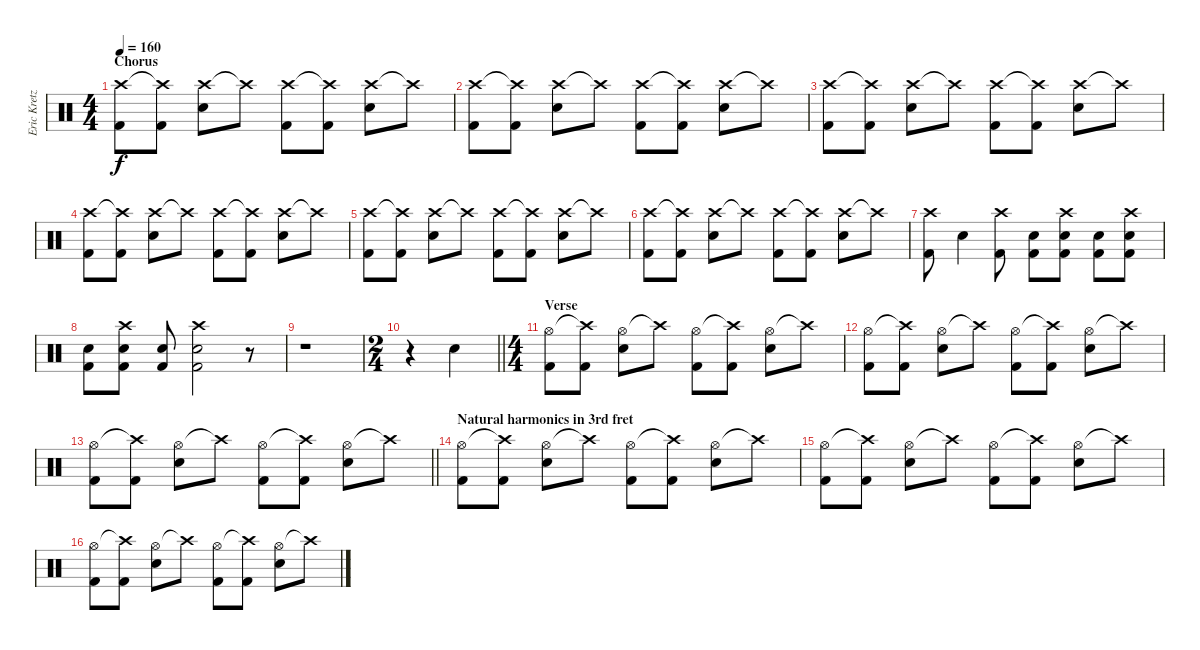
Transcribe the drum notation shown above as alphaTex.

\track ("Eric Kretz (Drums)" "Eric Kretz") {instrument percussion}
\staff {score}
\articulation defaults
\ts (4 4)
\section ("" "Chorus")
\tempo 160
\clef neutral
\ks c
("Crash high (hit)" "Kick (hit) 2").8{dy f} ("Crash high (hit)"{t} "Kick (hit) 2").8 ("Crash high (hit)" "Snare (hit) 2").8 "Crash high (hit)"{t}.8 ("Crash high (hit)" "Kick (hit) 2").8 ("Crash high (hit)"{t} "Kick (hit) 2").8 ("Crash high (hit)" "Snare (hit) 2").8 "Crash high (hit)"{t}.8 |
("Crash high (hit)" "Kick (hit) 2").8 ("Crash high (hit)"{t} "Kick (hit) 2").8 ("Crash high (hit)" "Snare (hit) 2").8 "Crash high (hit)"{t}.8 ("Crash high (hit)" "Kick (hit) 2").8 ("Crash high (hit)"{t} "Kick (hit) 2").8 ("Crash high (hit)" "Snare (hit) 2").8 "Crash high (hit)"{t}.8 |
("Crash high (hit)" "Kick (hit) 2").8 ("Crash high (hit)"{t} "Kick (hit) 2").8 ("Crash high (hit)" "Snare (hit) 2").8 "Crash high (hit)"{t}.8 ("Crash high (hit)" "Kick (hit) 2").8 ("Crash high (hit)"{t} "Kick (hit) 2").8 ("Crash high (hit)" "Snare (hit) 2").8 "Crash high (hit)"{t}.8 |
("Crash high (hit)" "Kick (hit) 2").8 ("Crash high (hit)"{t} "Kick (hit) 2").8 ("Crash high (hit)" "Snare (hit) 2").8 "Crash high (hit)"{t}.8 ("Crash high (hit)" "Kick (hit) 2").8 ("Crash high (hit)"{t} "Kick (hit) 2").8 ("Crash high (hit)" "Snare (hit) 2").8 "Crash high (hit)"{t}.8 |
("Crash high (hit)" "Kick (hit) 2").8 ("Crash high (hit)"{t} "Kick (hit) 2").8 ("Crash high (hit)" "Snare (hit) 2").8 "Crash high (hit)"{t}.8 ("Crash high (hit)" "Kick (hit) 2").8 ("Crash high (hit)"{t} "Kick (hit) 2").8 ("Crash high (hit)" "Snare (hit) 2").8 "Crash high (hit)"{t}.8 |
("Crash high (hit)" "Kick (hit) 2").8 ("Crash high (hit)"{t} "Kick (hit) 2").8 ("Crash high (hit)" "Snare (hit) 2").8 "Crash high (hit)"{t}.8 ("Crash high (hit)" "Kick (hit) 2").8 ("Crash high (hit)"{t} "Kick (hit) 2").8 ("Crash high (hit)" "Snare (hit) 2").8 "Crash high (hit)"{t}.8 |
("Crash high (hit)" "Kick (hit) 2").8 "Snare (hit) 2".4 ("Crash high (hit)" "Kick (hit) 2").8 ("Snare (hit) 2" "Kick (hit) 2").8 ("Crash high (hit)" "Snare (hit) 2" "Kick (hit) 2").8 ("Snare (hit) 2" "Kick (hit) 2").8 ("Crash high (hit)" "Snare (hit) 2" "Kick (hit) 2").8 |
("Snare (hit) 2" "Kick (hit) 2").8 ("Crash high (hit)" "Snare (hit) 2" "Kick (hit) 2").8 ("Snare (hit) 2" "Kick (hit) 2").8 ("Crash high (hit)" "Snare (hit) 2" "Kick (hit) 2").2 r.8 |
r.1 |
\ts (2 4)
\barLineRight lightlight
r.4 "Snare (hit) 2".4 |
\ts (4 4)
\section ("" "Verse")
("Hi-Hat (open)" "Kick (hit) 2").8 ("Crash high (hit)"{t} "Kick (hit) 2").8 ("Hi-Hat (open)" "Snare (hit) 2").8 "Crash high (hit)"{t}.8 ("Hi-Hat (open)" "Kick (hit) 2").8 ("Crash high (hit)"{t} "Kick (hit) 2").8 ("Hi-Hat (open)" "Snare (hit) 2").8 "Crash high (hit)"{t}.8 |
("Hi-Hat (open)" "Kick (hit) 2").8 ("Crash high (hit)"{t} "Kick (hit) 2").8 ("Hi-Hat (open)" "Snare (hit) 2").8 "Crash high (hit)"{t}.8 ("Hi-Hat (open)" "Kick (hit) 2").8 ("Crash high (hit)"{t} "Kick (hit) 2").8 ("Hi-Hat (open)" "Snare (hit) 2").8 "Crash high (hit)"{t}.8 |
\barLineRight lightlight
("Hi-Hat (open)" "Kick (hit) 2").8 ("Crash high (hit)"{t} "Kick (hit) 2").8 ("Hi-Hat (open)" "Snare (hit) 2").8 "Crash high (hit)"{t}.8 ("Hi-Hat (open)" "Kick (hit) 2").8 ("Crash high (hit)"{t} "Kick (hit) 2").8 ("Hi-Hat (open)" "Snare (hit) 2").8 "Crash high (hit)"{t}.8 |
\section ("" "Natural harmonics in 3rd fret")
("Hi-Hat (open)" "Kick (hit) 2").8 ("Crash high (hit)"{t} "Kick (hit) 2").8 ("Hi-Hat (open)" "Snare (hit) 2").8 "Crash high (hit)"{t}.8 ("Hi-Hat (open)" "Kick (hit) 2").8 ("Crash high (hit)"{t} "Kick (hit) 2").8 ("Hi-Hat (open)" "Snare (hit) 2").8 "Crash high (hit)"{t}.8 |
("Hi-Hat (open)" "Kick (hit) 2").8 ("Crash high (hit)"{t} "Kick (hit) 2").8 ("Hi-Hat (open)" "Snare (hit) 2").8 "Crash high (hit)"{t}.8 ("Hi-Hat (open)" "Kick (hit) 2").8 ("Crash high (hit)"{t} "Kick (hit) 2").8 ("Hi-Hat (open)" "Snare (hit) 2").8 "Crash high (hit)"{t}.8 |
("Hi-Hat (open)" "Kick (hit) 2").8 ("Crash high (hit)"{t} "Kick (hit) 2").8 ("Hi-Hat (open)" "Snare (hit) 2").8 "Crash high (hit)"{t}.8 ("Hi-Hat (open)" "Kick (hit) 2").8 ("Crash high (hit)"{t} "Kick (hit) 2").8 ("Hi-Hat (open)" "Snare (hit) 2").8 "Crash high (hit)"{t}.8
